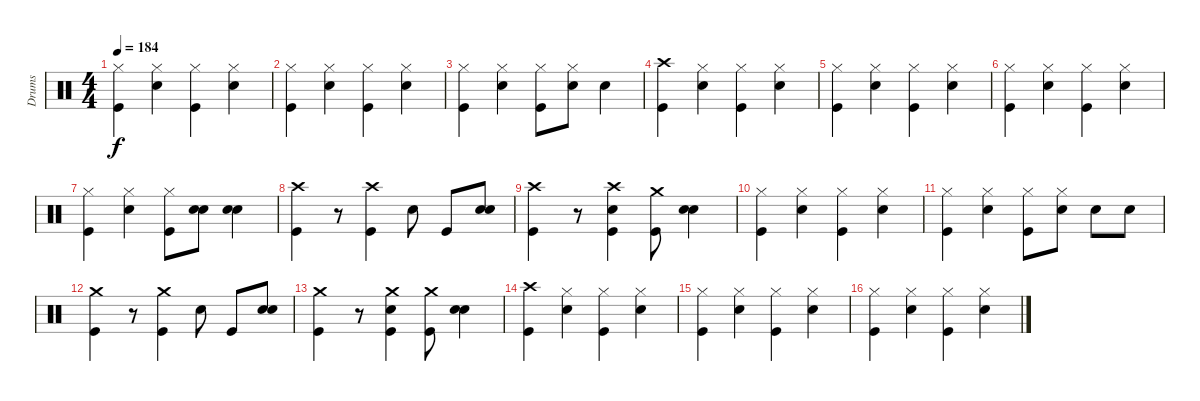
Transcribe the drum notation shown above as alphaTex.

\track ("Drums" "Drums") {instrument percussion}
\staff {score}
\articulation defaults
\ts (4 4)
\tempo 184
\clef neutral
\ks c
("Hi-Hat (closed)" "Kick (hit)").4{dy f} ("Hi-Hat (closed)" "Electric Snare (hit)").4 ("Hi-Hat (closed)" "Kick (hit)").4 ("Hi-Hat (closed)" "Electric Snare (hit)").4 |
("Hi-Hat (closed)" "Kick (hit)").4 ("Hi-Hat (closed)" "Electric Snare (hit)").4 ("Hi-Hat (closed)" "Kick (hit)").4 ("Hi-Hat (closed)" "Electric Snare (hit)").4 |
("Hi-Hat (closed)" "Kick (hit)").4 ("Hi-Hat (closed)" "Electric Snare (hit)").4 ("Hi-Hat (closed)" "Kick (hit)").8 ("Hi-Hat (closed)" "Electric Snare (hit)").8 "Electric Snare (hit)".4 |
("Crash high (hit)" "Kick (hit)").4 ("Hi-Hat (closed)" "Electric Snare (hit)").4 ("Hi-Hat (closed)" "Kick (hit)").4 ("Hi-Hat (closed)" "Electric Snare (hit)").4 |
("Hi-Hat (closed)" "Kick (hit)").4 ("Hi-Hat (closed)" "Electric Snare (hit)").4 ("Hi-Hat (closed)" "Kick (hit)").4 ("Hi-Hat (closed)" "Electric Snare (hit)").4 |
("Hi-Hat (closed)" "Kick (hit)").4 ("Hi-Hat (closed)" "Electric Snare (hit)").4 ("Hi-Hat (closed)" "Kick (hit)").4 ("Hi-Hat (closed)" "Electric Snare (hit)").4 |
("Hi-Hat (closed)" "Kick (hit)").4 ("Hi-Hat (closed)" "Electric Snare (hit)").4 ("Hi-Hat (closed)" "Kick (hit)").8 ("Electric Snare (hit)" "Electric Snare (hit)").8 ("Electric Snare (hit)" "Electric Snare (hit)").4 |
("Crash high (hit)" "Kick (hit)").4 r.8 ("Crash high (hit)" "Kick (hit)").4 "Electric Snare (hit)".8 "Kick (hit)".8 ("Electric Snare (hit)" "Electric Snare (hit)").8 |
("Crash high (hit)" "Kick (hit)").4 r.8 ("Crash high (hit)" "Electric Snare (hit)" "Kick (hit)").4 ("Crash medium (hit)" "Kick (hit)").8 ("Electric Snare (hit)" "Electric Snare (hit)").4 |
("Hi-Hat (closed)" "Kick (hit)").4 ("Hi-Hat (closed)" "Electric Snare (hit)").4 ("Hi-Hat (closed)" "Kick (hit)").4 ("Hi-Hat (closed)" "Electric Snare (hit)").4 |
("Hi-Hat (closed)" "Kick (hit)").4 ("Hi-Hat (closed)" "Electric Snare (hit)").4 ("Hi-Hat (closed)" "Kick (hit)").8 ("Hi-Hat (closed)" "Electric Snare (hit)").8 "Electric Snare (hit)".8 "Electric Snare (hit)".8 |
("Crash medium (hit)" "Kick (hit)").4 r.8 ("Crash medium (hit)" "Kick (hit)").4 "Electric Snare (hit)".8 "Kick (hit)".8 ("Electric Snare (hit)" "Electric Snare (hit)").8 |
("Crash medium (hit)" "Kick (hit)").4 r.8 ("Crash medium (hit)" "Electric Snare (hit)" "Kick (hit)").4 ("Crash medium (hit)" "Kick (hit)").8 ("Electric Snare (hit)" "Electric Snare (hit)").4 |
("Crash high (hit)" "Kick (hit)").4 ("Hi-Hat (closed)" "Electric Snare (hit)").4 ("Hi-Hat (closed)" "Kick (hit)").4 ("Hi-Hat (closed)" "Electric Snare (hit)").4 |
("Hi-Hat (closed)" "Kick (hit)").4 ("Hi-Hat (closed)" "Electric Snare (hit)").4 ("Hi-Hat (closed)" "Kick (hit)").4 ("Hi-Hat (closed)" "Electric Snare (hit)").4 |
("Hi-Hat (closed)" "Kick (hit)").4 ("Hi-Hat (closed)" "Electric Snare (hit)").4 ("Hi-Hat (closed)" "Kick (hit)").4 ("Hi-Hat (closed)" "Electric Snare (hit)").4
